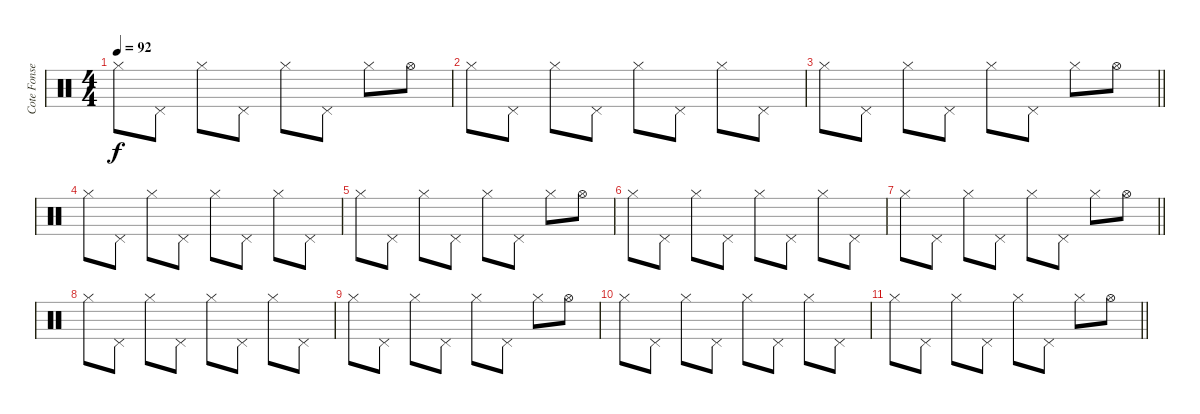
\track ("Cote Fonsea" "Cote Fonse") {instrument percussion}
\staff {score}
\articulation defaults
\ts (4 4)
\tempo 92
\clef neutral
\ks c "Hi-Hat (closed)".8{dy f} "Pedal Hi-Hat (hit)".8 "Hi-Hat (closed)".8 "Pedal Hi-Hat (hit)".8 "Hi-Hat (closed)".8 "Pedal Hi-Hat (hit)".8 "Hi-Hat (closed)".8 "Hi-Hat (open)".8
|
"Hi-Hat (closed)".8 "Pedal Hi-Hat (hit)".8 "Hi-Hat (closed)".8 "Pedal Hi-Hat (hit)".8 "Hi-Hat (closed)".8 "Pedal Hi-Hat (hit)".8 "Hi-Hat (closed)".8 "Pedal Hi-Hat (hit)".8 |
\barLineRight lightlight "Hi-Hat (closed)".8 "Pedal Hi-Hat (hit)".8 "Hi-Hat (closed)".8 "Pedal Hi-Hat (hit)".8 "Hi-Hat (closed)".8 "Pedal Hi-Hat (hit)".8 "Hi-Hat (closed)".8 "Hi-Hat (open)".8
|
"Hi-Hat (closed)".8 "Pedal Hi-Hat (hit)".8 "Hi-Hat (closed)".8 "Pedal Hi-Hat (hit)".8 "Hi-Hat (closed)".8 "Pedal Hi-Hat (hit)".8 "Hi-Hat (closed)".8 "Pedal Hi-Hat (hit)".8 |
"Hi-Hat (closed)".8 "Pedal Hi-Hat (hit)".8 "Hi-Hat (closed)".8 "Pedal Hi-Hat (hit)".8 "Hi-Hat (closed)".8 "Pedal Hi-Hat (hit)".8 "Hi-Hat (closed)".8 "Hi-Hat (open)".8 |
"Hi-Hat (closed)".8 "Pedal Hi-Hat (hit)".8 "Hi-Hat (closed)".8 "Pedal Hi-Hat (hit)".8 "Hi-Hat (closed)".8 "Pedal Hi-Hat (hit)".8 "Hi-Hat (closed)".8 "Pedal Hi-Hat (hit)".8 |
\barLineRight lightlight "Hi-Hat (closed)".8 "Pedal Hi-Hat (hit)".8 "Hi-Hat (closed)".8 "Pedal Hi-Hat (hit)".8 "Hi-Hat (closed)".8 "Pedal Hi-Hat (hit)".8 "Hi-Hat (closed)".8 "Hi-Hat (open)".8
|
"Hi-Hat (closed)".8 "Pedal Hi-Hat (hit)".8 "Hi-Hat (closed)".8 "Pedal Hi-Hat (hit)".8 "Hi-Hat (closed)".8 "Pedal Hi-Hat (hit)".8 "Hi-Hat (closed)".8 "Pedal Hi-Hat (hit)".8 |
"Hi-Hat (closed)".8 "Pedal Hi-Hat (hit)".8 "Hi-Hat (closed)".8 "Pedal Hi-Hat (hit)".8 "Hi-Hat (closed)".8 "Pedal Hi-Hat (hit)".8 "Hi-Hat (closed)".8 "Hi-Hat (open)".8 |
"Hi-Hat (closed)".8 "Pedal Hi-Hat (hit)".8 "Hi-Hat (closed)".8 "Pedal Hi-Hat (hit)".8 "Hi-Hat (closed)".8 "Pedal Hi-Hat (hit)".8 "Hi-Hat (closed)".8 "Pedal Hi-Hat (hit)".8 |
\barLineRight lightlight "Hi-Hat (closed)".8 "Pedal Hi-Hat (hit)".8 "Hi-Hat (closed)".8 "Pedal Hi-Hat (hit)".8 "Hi-Hat (closed)".8 "Pedal Hi-Hat (hit)".8 "Hi-Hat (closed)".8 "Hi-Hat (open)".8
